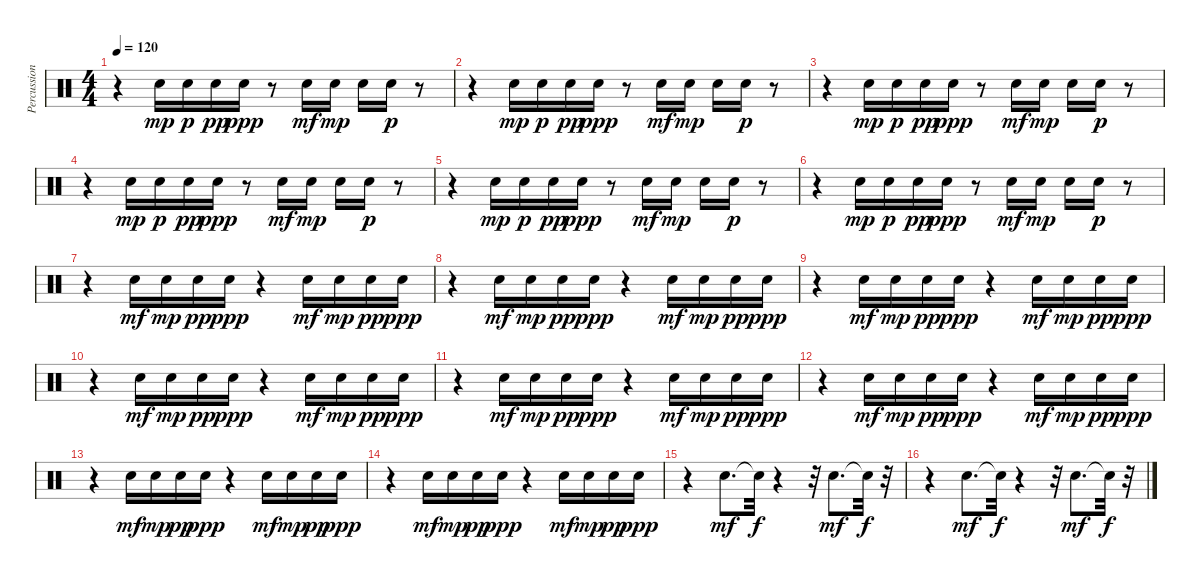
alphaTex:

\track ("Percussions" "Percussion") {instrument percussion}
\staff {score}
\articulation defaults
\ts (4 4)
\tempo 120
\clef neutral
\ks c
r.4{dy p} "Electric Snare (hit)".16{dy mp} "Electric Snare (hit)".16{dy p} "Electric Snare (hit)".16{dy pp} "Electric Snare (hit)".16{dy ppp} r.8 "Electric Snare (hit)".16{dy mf} "Electric Snare (hit)".16{dy mp} "Electric Snare (hit)".16 "Electric Snare (hit)".16{dy p} r.8 |
r.4 "Electric Snare (hit)".16{dy mp} "Electric Snare (hit)".16{dy p} "Electric Snare (hit)".16{dy pp} "Electric Snare (hit)".16{dy ppp} r.8 "Electric Snare (hit)".16{dy mf} "Electric Snare (hit)".16{dy mp} "Electric Snare (hit)".16 "Electric Snare (hit)".16{dy p} r.8 |
r.4 "Electric Snare (hit)".16{dy mp} "Electric Snare (hit)".16{dy p} "Electric Snare (hit)".16{dy pp} "Electric Snare (hit)".16{dy ppp} r.8 "Electric Snare (hit)".16{dy mf} "Electric Snare (hit)".16{dy mp} "Electric Snare (hit)".16 "Electric Snare (hit)".16{dy p} r.8 |
r.4 "Electric Snare (hit)".16{dy mp} "Electric Snare (hit)".16{dy p} "Electric Snare (hit)".16{dy pp} "Electric Snare (hit)".16{dy ppp} r.8 "Electric Snare (hit)".16{dy mf} "Electric Snare (hit)".16{dy mp} "Electric Snare (hit)".16 "Electric Snare (hit)".16{dy p} r.8 |
r.4 "Electric Snare (hit)".16{dy mp} "Electric Snare (hit)".16{dy p} "Electric Snare (hit)".16{dy pp} "Electric Snare (hit)".16{dy ppp} r.8 "Electric Snare (hit)".16{dy mf} "Electric Snare (hit)".16{dy mp} "Electric Snare (hit)".16 "Electric Snare (hit)".16{dy p} r.8 |
r.4 "Electric Snare (hit)".16{dy mp} "Electric Snare (hit)".16{dy p} "Electric Snare (hit)".16{dy pp} "Electric Snare (hit)".16{dy ppp} r.8 "Electric Snare (hit)".16{dy mf} "Electric Snare (hit)".16{dy mp} "Electric Snare (hit)".16 "Electric Snare (hit)".16{dy p} r.8 |
r.4 "Snare (hit) 2".16{dy mf} "Snare (hit) 2".16{dy mp} "Snare (hit) 2".16{dy pp} "Snare (hit) 2".16{dy ppp} r.4 "Snare (hit) 2".16{dy mf} "Snare (hit) 2".16{dy mp} "Snare (hit) 2".16{dy pp} "Snare (hit) 2".16{dy ppp} |
r.4 "Snare (hit) 2".16{dy mf} "Snare (hit) 2".16{dy mp} "Snare (hit) 2".16{dy pp} "Snare (hit) 2".16{dy ppp} r.4 "Snare (hit) 2".16{dy mf} "Snare (hit) 2".16{dy mp} "Snare (hit) 2".16{dy pp} "Snare (hit) 2".16{dy ppp} |
r.4 "Snare (hit) 2".16{dy mf} "Snare (hit) 2".16{dy mp} "Snare (hit) 2".16{dy pp} "Snare (hit) 2".16{dy ppp} r.4 "Snare (hit) 2".16{dy mf} "Snare (hit) 2".16{dy mp} "Snare (hit) 2".16{dy pp} "Snare (hit) 2".16{dy ppp} |
r.4 "Snare (hit) 2".16{dy mf} "Snare (hit) 2".16{dy mp} "Snare (hit) 2".16{dy pp} "Snare (hit) 2".16{dy ppp} r.4 "Snare (hit) 2".16{dy mf} "Snare (hit) 2".16{dy mp} "Snare (hit) 2".16{dy pp} "Snare (hit) 2".16{dy ppp} |
r.4 "Snare (hit) 2".16{dy mf} "Snare (hit) 2".16{dy mp} "Snare (hit) 2".16{dy pp} "Snare (hit) 2".16{dy ppp} r.4 "Snare (hit) 2".16{dy mf} "Snare (hit) 2".16{dy mp} "Snare (hit) 2".16{dy pp} "Snare (hit) 2".16{dy ppp} |
r.4 "Snare (hit) 2".16{dy mf} "Snare (hit) 2".16{dy mp} "Snare (hit) 2".16{dy pp} "Snare (hit) 2".16{dy ppp} r.4 "Snare (hit) 2".16{dy mf} "Snare (hit) 2".16{dy mp} "Snare (hit) 2".16{dy pp} "Snare (hit) 2".16{dy ppp} |
r.4 "Snare (hit) 2".16{dy mf} "Snare (hit) 2".16{dy mp} "Snare (hit) 2".16{dy pp} "Snare (hit) 2".16{dy ppp} r.4 "Snare (hit) 2".16{dy mf} "Snare (hit) 2".16{dy mp} "Snare (hit) 2".16{dy pp} "Snare (hit) 2".16{dy ppp} |
r.4 "Snare (hit) 2".16{dy mf} "Snare (hit) 2".16{dy mp} "Snare (hit) 2".16{dy pp} "Snare (hit) 2".16{dy ppp} r.4 "Snare (hit) 2".16{dy mf} "Snare (hit) 2".16{dy mp} "Snare (hit) 2".16{dy pp} "Snare (hit) 2".16{dy ppp} |
r.4 "Electric Snare (hit)".8{d dy mf} "Snare (hit)"{t}.32{dy f} r.4 r.32 "Snare (hit) 2".8{d dy mf} "Snare (hit)"{t}.32{dy f} r.32 |
r.4 "Electric Snare (hit)".8{d dy mf} "Snare (hit)"{t}.32{dy f} r.4 r.32 "Snare (hit) 2".8{d dy mf} "Snare (hit)"{t}.32{dy f} r.32
